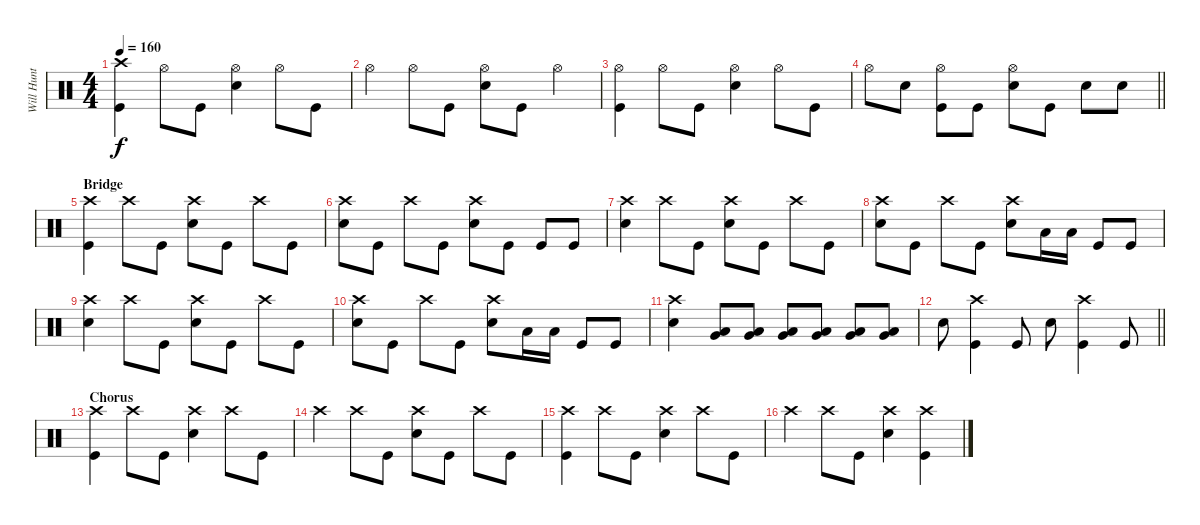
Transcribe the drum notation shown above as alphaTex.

\track ("Will Hunt" "Will Hunt") {instrument percussion}
\staff {score}
\articulation defaults
\ts (4 4)
\tempo 160
\clef neutral
\ks c
("Crash high (hit)" "Kick (hit)").4{dy f} "Hi-Hat (open)".8 "Kick (hit)".8 ("Hi-Hat (open)" "Snare (hit) 2").4 "Hi-Hat (open)".8 "Kick (hit)".8 |
"Hi-Hat (open)".4 "Hi-Hat (open)".8 "Kick (hit)".8 ("Hi-Hat (open)" "Snare (hit) 2").8 "Kick (hit)".8 "Hi-Hat (open)".4 |
("Hi-Hat (open)" "Kick (hit)").4 "Hi-Hat (open)".8 "Kick (hit)".8 ("Hi-Hat (open)" "Snare (hit) 2").4 "Hi-Hat (open)".8 "Kick (hit)".8 |
\barLineRight lightlight "Hi-Hat (open)".8 "Snare (hit) 2".8
("Hi-Hat (open)" "Kick (hit)").8 "Kick (hit)".8 ("Hi-Hat (open)" "Snare (hit) 2").8 "Kick (hit)".8 "Snare (hit) 2".8 "Snare (hit) 2".8 |
\section ("" "Bridge")
("Crash high (hit)" "Kick (hit)").4 "Crash high (hit)".8 "Kick (hit)".8 ("Crash high (hit)" "Snare (hit) 2").8 "Kick (hit)".8 "Crash high (hit)".8 "Kick (hit)".8 |
("Crash high (hit)" "Snare (hit) 2").8 "Kick (hit)".8 "Crash high (hit)".8 "Kick (hit)".8 ("Crash high (hit)" "Snare (hit) 2").8 "Kick (hit)".8 "Kick (hit)".8 "Kick (hit)".8 |
("Crash high (hit)" "Snare (hit) 2").4 "Crash high (hit)".8 "Kick (hit)".8 ("Crash high (hit)" "Snare (hit) 2").8 "Kick (hit)".8 "Crash high (hit)".8 "Kick (hit)".8 |
("Crash high (hit)" "Snare (hit) 2").8 "Kick (hit)".8 "Crash high (hit)".8 "Kick (hit)".8 ("Crash high (hit)" "Snare (hit) 2").8 "Low Floor Tom (hit)".16 "Low Floor Tom (hit)".16 "Kick (hit)".8 "Kick (hit)".8 |
("Crash high (hit)" "Snare (hit) 2").4 "Crash high (hit)".8 "Kick (hit)".8 ("Crash high (hit)" "Snare (hit) 2").8 "Kick (hit)".8 "Crash high (hit)".8 "Kick (hit)".8 |
("Crash high (hit)" "Snare (hit) 2").8 "Kick (hit)".8 "Crash high (hit)".8 "Kick (hit)".8 ("Crash high (hit)" "Snare (hit) 2").8 "Low Floor Tom (hit)".16 "Low Floor Tom (hit)".16 "Kick (hit)".8 "Kick (hit)".8 |
("Crash high (hit)" "Snare (hit) 2").4 ("Very Low Tom (hit)" "Low Floor Tom (hit)").8 ("Very Low Tom (hit)" "Low Floor Tom (hit)").8 ("Very Low Tom (hit)" "Low Floor Tom (hit)").8 ("Very Low Tom (hit)" "Low Floor Tom (hit)").8 ("Very Low Tom (hit)" "Low Floor Tom (hit)").8 ("Very Low Tom (hit)" "Low Floor Tom (hit)").8 |
\barLineRight lightlight "Snare (hit) 2".8
("Crash high (hit)" "Kick (hit)").4 "Kick (hit)".8 "Snare (hit) 2".8 ("Crash high (hit)" "Kick (hit)").4 "Kick (hit)".8 |
\section ("" "Chorus")
("Crash high (hit)" "Kick (hit)").4 "Crash high (hit)".8 "Kick (hit)".8 ("Crash high (hit)" "Snare (hit) 2").4 "Crash high (hit)".8 "Kick (hit)".8 |
"Crash high (hit)".4 "Crash high (hit)".8 "Kick (hit)".8 ("Crash high (hit)" "Snare (hit) 2").8 "Kick (hit)".8 "Crash high (hit)".8 "Kick (hit)".8 |
("Crash high (hit)" "Kick (hit)").4 "Crash high (hit)".8 "Kick (hit)".8 ("Crash high (hit)" "Snare (hit) 2").4 "Crash high (hit)".8 "Kick (hit)".8 |
"Crash high (hit)".4 "Crash high (hit)".8 "Kick (hit)".8 ("Crash high (hit)" "Snare (hit) 2").4 ("Crash high (hit)" "Kick (hit)").4
